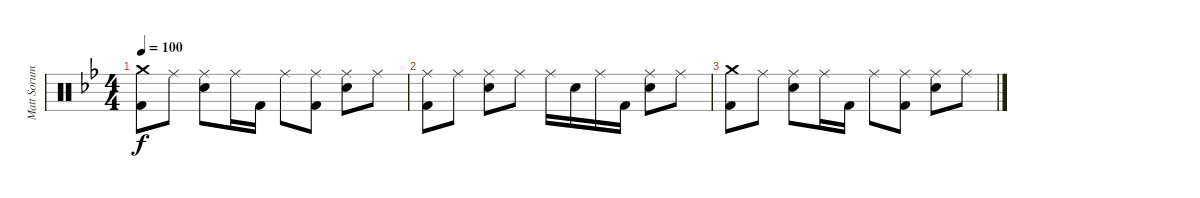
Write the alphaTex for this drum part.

\track ("Matt Sorum" "Matt Sorum") {instrument percussion}
\staff {score}
\articulation defaults
\ts (4 4)
\tempo 100
\clef neutral
\ks bb
("Crash medium (hit)" "Kick (hit) 2").8{dy f} "Ride (middle)".8 ("Ride (middle)" "Electric Snare (hit)").8 "Ride (middle)".16 "Kick (hit) 2".16 "Ride (middle)".8 ("Ride (middle)" "Kick (hit) 2").8 ("Ride (middle)" "Electric Snare (hit)").8 "Ride (middle)".8 |
("Ride (middle)" "Kick (hit) 2").8{volume 0} "Ride (middle)".8 ("Ride (middle)" "Electric Snare (hit)").8 "Ride (middle)".8 "Ride (middle)".16 "Electric Snare (hit)".16 "Ride (middle)".16 "Kick (hit) 2".16 ("Ride (middle)" "Electric Snare (hit)").8 "Ride (middle)".8 |
("Crash medium (hit)" "Kick (hit) 2").8 "Ride (middle)".8 ("Ride (middle)" "Electric Snare (hit)").8 "Ride (middle)".16 "Kick (hit) 2".16 "Ride (middle)".8 ("Ride (middle)" "Kick (hit) 2").8 ("Ride (middle)" "Electric Snare (hit)").8 "Ride (middle)".8
